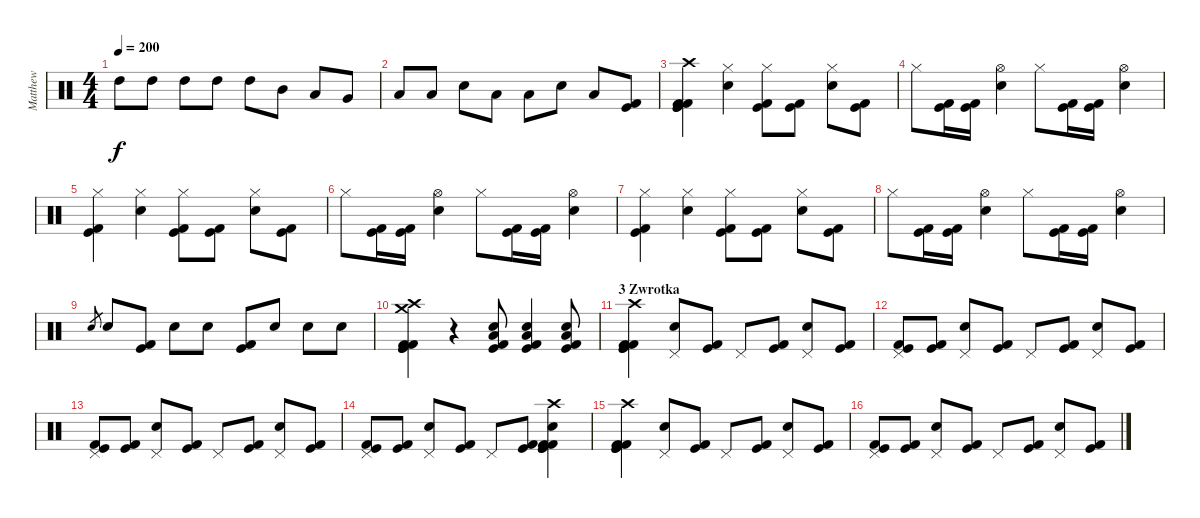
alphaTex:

\track ("Matthew" "Matthew") {instrument percussion}
\staff {score}
\articulation defaults
\ts (4 4)
\tempo 200
\clef neutral
\ks c "High Tom (hit)".8{dy f} "High Tom (hit)".8 "High Tom (hit)".8 "High Tom (hit)".8 "High Tom (hit)".8 "Mid Tom (hit)".8 "Low Tom (hit)".8 "Very Low Tom (hit)".8
|
"Low Floor Tom (hit)".8 "Low Floor Tom (hit)".8 "Snare (hit) 2".8 "Low Floor Tom (hit)".8 "Low Floor Tom (hit)".8 "Snare (hit) 2".8 "Low Tom (hit)".8 ("Kick (hit) 2" "Kick (hit)").8 |
("Crash high (hit)" "Kick (hit) 2" "Kick (hit)" "Kick (hit)" "Kick (hit) 2").4 ("Hi-Hat (closed)" "Snare (hit) 2").4 ("Hi-Hat (closed)" "Kick (hit) 2" "Kick (hit)").8 ("Kick (hit) 2" "Kick (hit)").8 ("Snare (hit) 2" "Hi-Hat (closed)").8 ("Kick (hit) 2" "Kick (hit)").8 |
"Hi-Hat (closed)".8 ("Kick (hit) 2" "Kick (hit)").16 ("Kick (hit) 2" "Kick (hit)").16 ("Hi-Hat (open)" "Snare (hit) 2").4 "Hi-Hat (closed)".8 ("Kick (hit) 2" "Kick (hit)").16 ("Kick (hit) 2" "Kick (hit)").16 ("Snare (hit) 2" "Hi-Hat (open)").4 |
("Hi-Hat (closed)" "Kick (hit)" "Kick (hit) 2").4 ("Hi-Hat (closed)" "Snare (hit) 2").4 ("Hi-Hat (closed)" "Kick (hit) 2" "Kick (hit)").8 ("Kick (hit) 2" "Kick (hit)").8 ("Snare (hit) 2" "Hi-Hat (closed)").8 ("Kick (hit) 2" "Kick (hit)").8 |
"Hi-Hat (closed)".8 ("Kick (hit) 2" "Kick (hit)").16 ("Kick (hit) 2" "Kick (hit)").16 ("Hi-Hat (open)" "Snare (hit) 2").4 "Hi-Hat (closed)".8 ("Kick (hit) 2" "Kick (hit)").16 ("Kick (hit) 2" "Kick (hit)").16 ("Snare (hit) 2" "Hi-Hat (open)").4 |
("Hi-Hat (closed)" "Kick (hit)" "Kick (hit) 2").4 ("Hi-Hat (closed)" "Snare (hit) 2").4 ("Hi-Hat (closed)" "Kick (hit) 2" "Kick (hit)").8 ("Kick (hit) 2" "Kick (hit)").8 ("Snare (hit) 2" "Hi-Hat (closed)").8 ("Kick (hit) 2" "Kick (hit)").8 |
"Hi-Hat (closed)".8 ("Kick (hit) 2" "Kick (hit)").16 ("Kick (hit) 2" "Kick (hit)").16 ("Hi-Hat (open)" "Snare (hit) 2").4 "Hi-Hat (closed)".8 ("Kick (hit) 2" "Kick (hit)").16 ("Kick (hit) 2" "Kick (hit)").16 ("Snare (hit) 2" "Hi-Hat (open)").4 |
"Snare (hit) 2".8{gr} "Snare (hit) 2".8 ("Kick (hit) 2" "Kick (hit)").8 "Snare (hit) 2".8 "Snare (hit) 2".8 ("Kick (hit) 2" "Kick (hit)").8 "Snare (hit) 2".8 "Snare (hit) 2".8 "Snare (hit) 2".8 |
("Kick (hit) 2" "Kick (hit)" "Kick (hit) 2" "Kick (hit)" "Crash high (hit)" "Crash medium (hit)").4 r.4 ("Kick (hit)" "Kick (hit) 2" "Snare (hit) 2" "Low Tom (hit)").8 ("Kick (hit)" "Kick (hit) 2" "Snare (hit) 2" "Low Tom (hit)").4 ("Kick (hit) 2" "Kick (hit)" "Snare (hit) 2" "Low Tom (hit)").8 |
\section ("" "3 Zwrotka")
("Kick (hit) 2" "Kick (hit)" "Kick (hit)" "Kick (hit) 2" "Crash high (hit)").4 ("Pedal Hi-Hat (hit)" "Snare (hit) 2").8 ("Kick (hit)" "Kick (hit) 2").8 "Pedal Hi-Hat (hit)".8 ("Kick (hit)" "Kick (hit) 2").8 ("Snare (hit) 2" "Pedal Hi-Hat (hit)").8 ("Kick (hit)" "Kick (hit) 2").8 |
("Kick (hit) 2" "Kick (hit)" "Pedal Hi-Hat (hit)").8 ("Kick (hit) 2" "Kick (hit)").8 ("Snare (hit) 2" "Pedal Hi-Hat (hit)").8 ("Kick (hit) 2" "Kick (hit)").8 "Pedal Hi-Hat (hit)".8 ("Kick (hit) 2" "Kick (hit)").8 ("Pedal Hi-Hat (hit)" "Snare (hit) 2").8 ("Kick (hit) 2" "Kick (hit)").8 |
("Kick (hit) 2" "Kick (hit)" "Pedal Hi-Hat (hit)").8 ("Kick (hit) 2" "Kick (hit)").8 ("Snare (hit) 2" "Pedal Hi-Hat (hit)").8 ("Kick (hit) 2" "Kick (hit)").8 "Pedal Hi-Hat (hit)".8 ("Kick (hit) 2" "Kick (hit)").8 ("Pedal Hi-Hat (hit)" "Snare (hit) 2").8 ("Kick (hit) 2" "Kick (hit)").8 |
("Kick (hit) 2" "Kick (hit)" "Pedal Hi-Hat (hit)").8 ("Kick (hit) 2" "Kick (hit)").8 ("Snare (hit) 2" "Pedal Hi-Hat (hit)").8 ("Kick (hit) 2" "Kick (hit)").8 "Pedal Hi-Hat (hit)".8 ("Kick (hit) 2" "Kick (hit)").8 ("Kick (hit)" "Snare (hit) 2" "Crash high (hit)" "Kick (hit) 2" "Kick (hit)" "Kick (hit) 2").4 |
("Kick (hit) 2" "Kick (hit)" "Kick (hit)" "Kick (hit) 2" "Crash high (hit)").4 ("Pedal Hi-Hat (hit)" "Snare (hit) 2").8 ("Kick (hit)" "Kick (hit) 2").8 "Pedal Hi-Hat (hit)".8 ("Kick (hit)" "Kick (hit) 2").8 ("Snare (hit) 2" "Pedal Hi-Hat (hit)").8 ("Kick (hit)" "Kick (hit) 2").8 |
("Kick (hit) 2" "Kick (hit)" "Pedal Hi-Hat (hit)").8 ("Kick (hit) 2" "Kick (hit)").8 ("Snare (hit) 2" "Pedal Hi-Hat (hit)").8 ("Kick (hit) 2" "Kick (hit)").8 "Pedal Hi-Hat (hit)".8 ("Kick (hit) 2" "Kick (hit)").8 ("Pedal Hi-Hat (hit)" "Snare (hit) 2").8 ("Kick (hit) 2" "Kick (hit)").8
